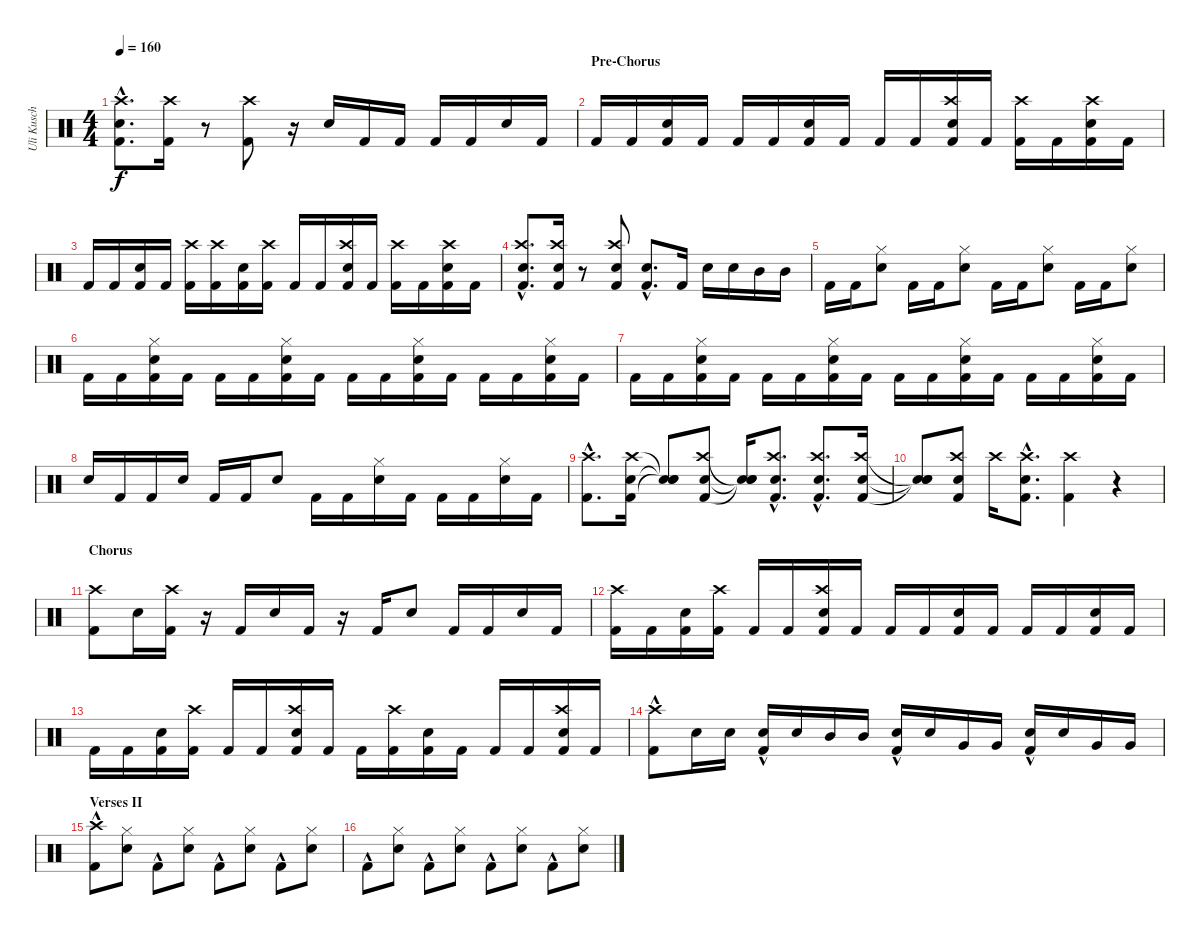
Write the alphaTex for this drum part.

\track ("Uli Kusch" "Uli Kusch") {instrument percussion}
\staff {score}
\articulation defaults
\ts (4 4)
\tempo 160
\clef neutral
\ks c
("Snare (hit) 2"{hac} "Crash high (hit)"{hac} "Kick (hit) 2"{hac}).8{d dy f} ("Kick (hit) 2" "Crash high (hit)").16 r.8 ("Kick (hit) 2" "Crash high (hit)").8 r.16 "Snare (hit) 2".16 "Kick (hit) 2".16 "Kick (hit) 2".16 "Kick (hit) 2".16 "Kick (hit) 2".16 "Snare (hit) 2".16 "Kick (hit) 2".16 |
\section ("" "Pre-Chorus")
"Kick (hit) 2".16 "Kick (hit) 2".16 ("Kick (hit) 2" "Snare (hit) 2").16 "Kick (hit) 2".16 "Kick (hit) 2".16 "Kick (hit) 2".16 ("Kick (hit) 2" "Snare (hit) 2").16 "Kick (hit) 2".16 "Kick (hit) 2".16 "Kick (hit) 2".16 ("Kick (hit) 2" "Snare (hit) 2" "Crash high (hit)").16 "Kick (hit) 2".16 ("Kick (hit) 2" "Crash high (hit)").16 "Kick (hit) 2".16 ("Kick (hit) 2" "Crash high (hit)" "Snare (hit) 2").16 "Kick (hit) 2".16 |
"Kick (hit) 2".16 "Kick (hit) 2".16 ("Kick (hit) 2" "Snare (hit) 2").16 "Kick (hit) 2".16 ("Kick (hit) 2" "Crash high (hit)").16 ("Kick (hit) 2" "Crash high (hit)").16 ("Kick (hit) 2" "Snare (hit) 2").16 ("Kick (hit) 2" "Crash high (hit)").16 "Kick (hit) 2".16 "Kick (hit) 2".16 ("Kick (hit) 2" "Snare (hit) 2" "Crash high (hit)").16 "Kick (hit) 2".16 ("Kick (hit) 2" "Crash high (hit)").16 "Kick (hit) 2".16 ("Kick (hit) 2" "Crash high (hit)" "Snare (hit) 2").16 "Kick (hit) 2".16 |
("Kick (hit) 2"{hac} "Snare (hit) 2"{hac} "Crash high (hit)"{hac}).8{d} ("Kick (hit) 2" "Snare (hit) 2" "Crash high (hit)").16 r.8 ("Kick (hit) 2" "Snare (hit) 2" "Crash high (hit)").8 ("Snare (hit) 2"{hac} "Kick (hit) 2").8{d} "Kick (hit) 2".16 "Snare (hit) 2".16 "Snare (hit) 2".16 "Mid Tom (hit)".16 "Mid Tom (hit)".16 |
"Kick (hit) 2".16 "Kick (hit) 2".16 ("Snare (hit) 2" "Hi-Hat (closed)").8 "Kick (hit) 2".16 "Kick (hit) 2".16 ("Hi-Hat (closed)" "Snare (hit) 2").8 "Kick (hit) 2".16 "Kick (hit) 2".16 ("Snare (hit) 2" "Hi-Hat (closed)").8 "Kick (hit) 2".16 "Kick (hit) 2".16 ("Hi-Hat (closed)" "Snare (hit) 2").8 |
"Kick (hit) 2".16 "Kick (hit) 2".16 ("Kick (hit) 2" "Snare (hit) 2" "Hi-Hat (closed)").16 "Kick (hit) 2".16 "Kick (hit) 2".16 "Kick (hit) 2".16 ("Kick (hit) 2" "Hi-Hat (closed)" "Snare (hit) 2").16 "Kick (hit) 2".16 "Kick (hit) 2".16 "Kick (hit) 2".16 ("Kick (hit) 2" "Snare (hit) 2" "Hi-Hat (closed)").16 "Kick (hit) 2".16 "Kick (hit) 2".16 "Kick (hit) 2".16 ("Kick (hit) 2" "Hi-Hat (closed)" "Snare (hit) 2").16 "Kick (hit) 2".16 |
"Kick (hit) 2".16 "Kick (hit) 2".16 ("Kick (hit) 2" "Snare (hit) 2" "Hi-Hat (closed)").16 "Kick (hit) 2".16 "Kick (hit) 2".16 "Kick (hit) 2".16 ("Kick (hit) 2" "Hi-Hat (closed)" "Snare (hit) 2").16 "Kick (hit) 2".16 "Kick (hit) 2".16 "Kick (hit) 2".16 ("Kick (hit) 2" "Snare (hit) 2" "Hi-Hat (closed)").16 "Kick (hit) 2".16 "Kick (hit) 2".16 "Kick (hit) 2".16 ("Kick (hit) 2" "Hi-Hat (closed)" "Snare (hit) 2").16 "Kick (hit) 2".16 |
"Snare (hit) 2".16 "Kick (hit) 2".16 "Kick (hit) 2".16 "Snare (hit) 2".16 "Kick (hit) 2".16 "Kick (hit) 2".16 "Snare (hit) 2".8 "Kick (hit) 2".16 "Kick (hit) 2".16 ("Snare (hit) 2" "Hi-Hat (closed)").16 "Kick (hit) 2".16 "Kick (hit) 2".16 "Kick (hit) 2".16 ("Snare (hit) 2" "Hi-Hat (closed)").16 "Kick (hit) 2".16 |
("Kick (hit) 2"{hac} "Crash high (hit)"{hac}).8{d} ("Crash high (hit)" "Kick (hit) 2" "Snare (hit) 2").16 ("Snare (hit)"{t} "Snare (hit)"{t} "Snare (hit)"{t}).8 ("Crash high (hit)" "Kick (hit) 2" "Snare (hit) 2").8 ("Snare (hit)"{t} "Snare (hit)"{t} "Snare (hit)"{t}).16 ("Crash high (hit)"{hac} "Kick (hit) 2"{hac} "Snare (hit) 2"{hac}).8{d} ("Crash high (hit)"{hac} "Kick (hit) 2"{hac} "Snare (hit) 2"{hac}).8{d} ("Crash high (hit)" "Kick (hit) 2" "Snare (hit) 2").16 |
("Snare (hit)"{t} "Snare (hit)"{t} "Snare (hit)"{t}).8 ("Crash high (hit)" "Kick (hit) 2" "Snare (hit) 2").8 "Crash high (hit)".16 ("Crash high (hit)"{hac} "Snare (hit) 2"{hac} "Kick (hit) 2"{hac}).8{d} ("Kick (hit) 2" "Crash high (hit)").4 r.4 |
\section ("" "Chorus")
("Crash high (hit)" "Kick (hit) 2").8 "Snare (hit) 2".16 ("Kick (hit) 2" "Crash high (hit)").16 r.16 "Kick (hit) 2".16 "Snare (hit) 2".16 "Kick (hit) 2".16 r.16 "Kick (hit) 2".16 "Snare (hit) 2".8 "Kick (hit) 2".16 "Kick (hit) 2".16 "Snare (hit) 2".16 "Kick (hit) 2".16 |
("Kick (hit) 2" "Crash high (hit)").16 "Kick (hit) 2".16 ("Kick (hit) 2" "Snare (hit) 2").16 ("Kick (hit) 2" "Crash high (hit)").16 "Kick (hit) 2".16 "Kick (hit) 2".16 ("Kick (hit) 2" "Snare (hit) 2" "Crash high (hit)").16 "Kick (hit) 2".16 "Kick (hit) 2".16 "Kick (hit) 2".16 ("Kick (hit) 2" "Snare (hit) 2").16 "Kick (hit) 2".16 "Kick (hit) 2".16 "Kick (hit) 2".16 ("Kick (hit) 2" "Snare (hit) 2").16 "Kick (hit) 2".16 |
"Kick (hit) 2".16 "Kick (hit) 2".16 ("Kick (hit) 2" "Snare (hit) 2").16 ("Kick (hit) 2" "Crash high (hit)").16 "Kick (hit) 2".16 "Kick (hit) 2".16 ("Kick (hit) 2" "Snare (hit) 2" "Crash high (hit)").16 "Kick (hit) 2".16 "Kick (hit) 2".16 ("Kick (hit) 2" "Crash high (hit)").16 ("Kick (hit) 2" "Snare (hit) 2").16 "Kick (hit) 2".16 "Kick (hit) 2".16 "Kick (hit) 2".16 ("Kick (hit) 2" "Snare (hit) 2" "Crash high (hit)").16 "Kick (hit) 2".16 |
("Kick (hit) 2"{hac} "Crash high (hit)").8 "Snare (hit) 2".16 "Snare (hit) 2".16 ("Kick (hit) 2"{hac} "Snare (hit) 2").16 "Snare (hit) 2".16 "Mid Tom (hit)".16 "Mid Tom (hit)".16 ("Kick (hit) 2"{hac} "Snare (hit) 2").16 "Snare (hit) 2".16 "Very Low Tom (hit)".16 "Very Low Tom (hit)".16 ("Kick (hit) 2"{hac} "Snare (hit) 2").16 "Snare (hit) 2".16 "Very Low Tom (hit)".16 "Very Low Tom (hit)".16 |
\section ("" "Verses II")
("Kick (hit) 2"{hac} "Crash high (hit)").8 ("Hi-Hat (closed)" "Snare (hit) 2").8 "Kick (hit) 2"{hac}.8 ("Snare (hit) 2" "Hi-Hat (closed)").8 "Kick (hit) 2"{hac}.8 ("Snare (hit) 2" "Hi-Hat (closed)").8 "Kick (hit) 2"{hac}.8 ("Hi-Hat (closed)" "Snare (hit) 2").8 |
"Kick (hit) 2"{hac}.8 ("Snare (hit) 2" "Hi-Hat (closed)").8 "Kick (hit) 2"{hac}.8 ("Hi-Hat (closed)" "Snare (hit) 2").8 "Kick (hit) 2"{hac}.8 ("Snare (hit) 2" "Hi-Hat (closed)").8 "Kick (hit) 2"{hac}.8 ("Hi-Hat (closed)" "Snare (hit) 2").8
